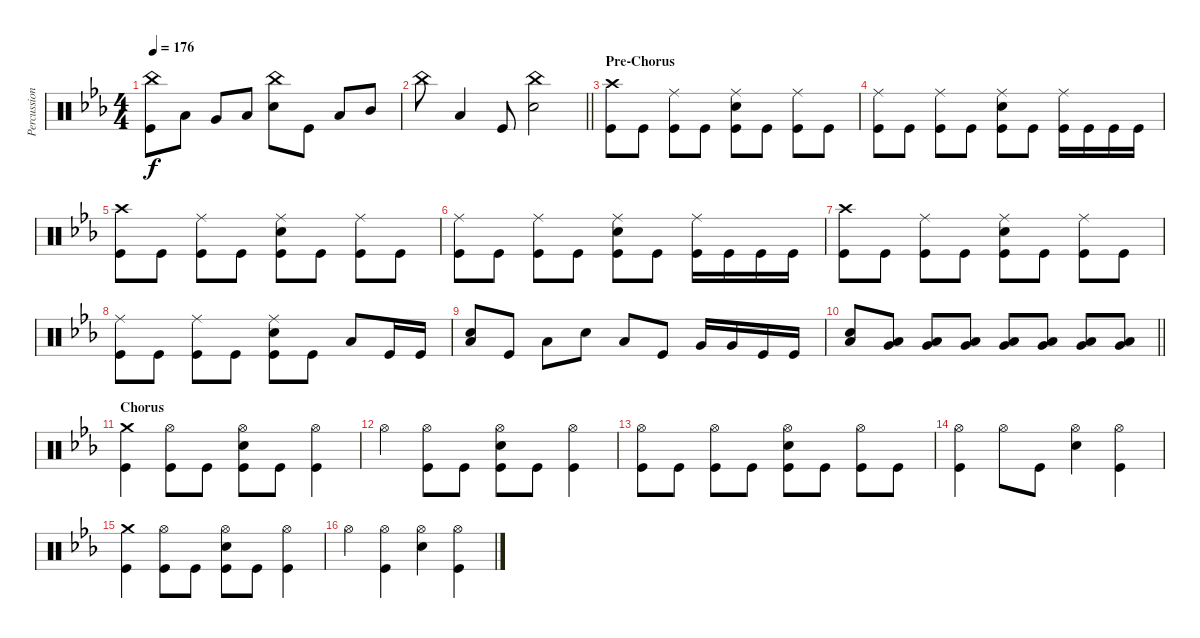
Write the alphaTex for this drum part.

\track ("Percussion" "Percussion") {instrument percussion}
\staff {score}
\articulation defaults
\ts (4 4)
\tempo 176
\clef neutral
\ks eb
("China (hit)" "Kick (hit)").8{dy f} "Low Tom (hit)".8 "Very Low Tom (hit)".8 "Low Tom (hit)".8 ("China (hit)" "Electric Snare (hit)").8 "Kick (hit)".8 "Low Floor Tom (hit)".8 "Mid Tom (hit)".8 |
\barLineRight lightlight "China (hit)".8 "Low Tom (hit)".4 "Kick (hit)".8
("China (hit)" "Electric Snare (hit)").2 |
\section ("" "Pre-Chorus")
("Crash high (hit)" "Kick (hit)").8 "Kick (hit)".8 ("Ride (middle)" "Kick (hit)").8 "Kick (hit)".8 ("Ride (middle)" "Electric Snare (hit)" "Kick (hit)").8 "Kick (hit)".8 ("Ride (middle)" "Kick (hit)").8 "Kick (hit)".8 |
("Ride (middle)" "Kick (hit)").8 "Kick (hit)".8 ("Ride (middle)" "Kick (hit)").8 "Kick (hit)".8 ("Ride (middle)" "Electric Snare (hit)" "Kick (hit)").8 "Kick (hit)".8 ("Ride (middle)" "Kick (hit)").16 "Kick (hit)".16 "Kick (hit)".16 "Kick (hit)".16 |
("Crash high (hit)" "Kick (hit)").8 "Kick (hit)".8 ("Ride (middle)" "Kick (hit)").8 "Kick (hit)".8 ("Ride (middle)" "Electric Snare (hit)" "Kick (hit)").8 "Kick (hit)".8 ("Ride (middle)" "Kick (hit)").8 "Kick (hit)".8 |
("Ride (middle)" "Kick (hit)").8 "Kick (hit)".8 ("Ride (middle)" "Kick (hit)").8 "Kick (hit)".8 ("Ride (middle)" "Electric Snare (hit)" "Kick (hit)").8 "Kick (hit)".8 ("Ride (middle)" "Kick (hit)").16 "Kick (hit)".16 "Kick (hit)".16 "Kick (hit)".16 |
("Crash high (hit)" "Kick (hit)").8 "Kick (hit)".8 ("Ride (middle)" "Kick (hit)").8 "Kick (hit)".8 ("Ride (middle)" "Electric Snare (hit)" "Kick (hit)").8 "Kick (hit)".8 ("Ride (middle)" "Kick (hit)").8 "Kick (hit)".8 |
("Ride (middle)" "Kick (hit)").8 "Kick (hit)".8 ("Ride (middle)" "Kick (hit)").8 "Kick (hit)".8 ("Ride (middle)" "Electric Snare (hit)" "Kick (hit)").8 "Kick (hit)".8 "Low Tom (hit)".8 "Kick (hit)".16 "Kick (hit)".16 |
("Low Tom (hit)" "Electric Snare (hit)").8 "Kick (hit)".8 "Low Tom (hit)".8 "Electric Snare (hit)".8 "Low Tom (hit)".8 "Kick (hit)".8 "Very Low Tom (hit)".16 "Very Low Tom (hit)".16 "Kick (hit)".16 "Kick (hit)".16 |
\barLineRight lightlight
("Low Floor Tom (hit)" "Electric Snare (hit)").8 ("Very Low Tom (hit)" "Low Floor Tom (hit)").8 ("Very Low Tom (hit)" "Low Floor Tom (hit)").8 ("Very Low Tom (hit)" "Low Floor Tom (hit)").8 ("Very Low Tom (hit)" "Low Floor Tom (hit)").8 ("Very Low Tom (hit)" "Low Floor Tom (hit)").8 ("Very Low Tom (hit)" "Low Floor Tom (hit)").8 ("Very Low Tom (hit)" "Low Floor Tom (hit)").8 |
\section ("" "Chorus")
("Crash medium (hit)" "Kick (hit)").4 ("Hi-Hat (open)" "Kick (hit)").8 "Kick (hit)".8 ("Hi-Hat (open)" "Electric Snare (hit)" "Kick (hit)").8 "Kick (hit)".8 ("Hi-Hat (open)" "Kick (hit)").4 |
"Hi-Hat (open)".4 ("Hi-Hat (open)" "Kick (hit)").8 "Kick (hit)".8 ("Hi-Hat (open)" "Electric Snare (hit)" "Kick (hit)").8 "Kick (hit)".8 ("Hi-Hat (open)" "Kick (hit)").4 |
("Hi-Hat (open)" "Kick (hit)").8 "Kick (hit)".8 ("Hi-Hat (open)" "Kick (hit)").8 "Kick (hit)".8 ("Hi-Hat (open)" "Electric Snare (hit)" "Kick (hit)").8 "Kick (hit)".8 ("Hi-Hat (open)" "Kick (hit)").8 "Kick (hit)".8 |
("Hi-Hat (open)" "Kick (hit)").4 "Hi-Hat (open)".8 "Kick (hit)".8 ("Hi-Hat (open)" "Electric Snare (hit)").4 ("Hi-Hat (open)" "Kick (hit)").4 |
("Crash medium (hit)" "Kick (hit)").4 ("Hi-Hat (open)" "Kick (hit)").8 "Kick (hit)".8 ("Hi-Hat (open)" "Electric Snare (hit)" "Kick (hit)").8 "Kick (hit)".8 ("Hi-Hat (open)" "Kick (hit)").4 |
"Hi-Hat (open)".4 ("Hi-Hat (open)" "Kick (hit)").4 ("Hi-Hat (open)" "Electric Snare (hit)").4 ("Hi-Hat (open)" "Kick (hit)").4
